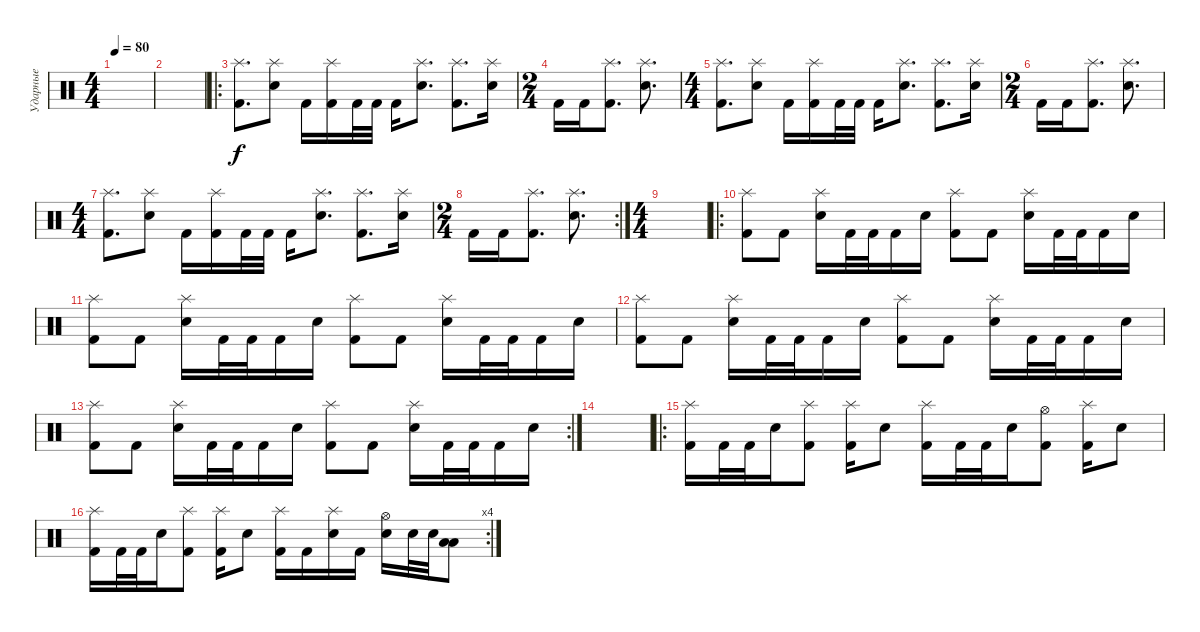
\track ("Ударные" "Ударные") {instrument percussion}
\staff {score}
\articulation defaults
\ts (4 4)
\tempo 80
\clef neutral
\ks c
|
|
\ro
("Splash (hit)" "Kick (hit) 2").8{d} ("Splash (hit)" "Electric Snare (hit)").8 "Kick (hit) 2".16 ("Splash (hit)" "Kick (hit) 2").16 "Kick (hit) 2".32 "Kick (hit) 2".32 "Kick (hit) 2".16 ("Splash (hit)" "Electric Snare (hit)").8{d} ("Splash (hit)" "Kick (hit) 2").8{d} ("Splash (hit)" "Electric Snare (hit)").16 |
\ts (2 4)
"Kick (hit) 2".16 "Kick (hit) 2".16 ("Splash (hit)" "Kick (hit) 2").8{d} ("Splash (hit)" "Electric Snare (hit)").8{d} |
\ts (4 4)
("Splash (hit)" "Kick (hit) 2").8{d} ("Splash (hit)" "Electric Snare (hit)").8 "Kick (hit) 2".16 ("Splash (hit)" "Kick (hit) 2").16 "Kick (hit) 2".32 "Kick (hit) 2".32 "Kick (hit) 2".16 ("Splash (hit)" "Electric Snare (hit)").8{d} ("Splash (hit)" "Kick (hit) 2").8{d} ("Splash (hit)" "Electric Snare (hit)").16 |
\ts (2 4)
"Kick (hit) 2".16 "Kick (hit) 2".16 ("Splash (hit)" "Kick (hit) 2").8{d} ("Splash (hit)" "Electric Snare (hit)").8{d} |
\ts (4 4)
("Splash (hit)" "Kick (hit) 2").8{d} ("Splash (hit)" "Electric Snare (hit)").8 "Kick (hit) 2".16 ("Splash (hit)" "Kick (hit) 2").16 "Kick (hit) 2".32 "Kick (hit) 2".32 "Kick (hit) 2".16 ("Splash (hit)" "Electric Snare (hit)").8{d} ("Splash (hit)" "Kick (hit) 2").8{d} ("Splash (hit)" "Electric Snare (hit)").16 |
\rc 2
\ts (2 4)
"Kick (hit) 2".16 "Kick (hit) 2".16 ("Splash (hit)" "Kick (hit) 2").8{d} ("Splash (hit)" "Electric Snare (hit)").8{d} |
\ts (4 4)
|
\ro
("Splash (hit)" "Kick (hit) 2").8 "Kick (hit) 2".8 ("Splash (hit)" "Electric Snare (hit)").16 "Kick (hit) 2".32 "Kick (hit) 2".32 "Kick (hit) 2".16 "Electric Snare (hit)".16 ("Splash (hit)" "Kick (hit) 2").8 "Kick (hit) 2".8 ("Splash (hit)" "Electric Snare (hit)").16 "Kick (hit) 2".32 "Kick (hit) 2".32 "Kick (hit) 2".16 "Electric Snare (hit)".16 |
("Splash (hit)" "Kick (hit) 2").8 "Kick (hit) 2".8 ("Splash (hit)" "Electric Snare (hit)").16 "Kick (hit) 2".32 "Kick (hit) 2".32 "Kick (hit) 2".16 "Electric Snare (hit)".16 ("Splash (hit)" "Kick (hit) 2").8 "Kick (hit) 2".8 ("Splash (hit)" "Electric Snare (hit)").16 "Kick (hit) 2".32 "Kick (hit) 2".32 "Kick (hit) 2".16 "Electric Snare (hit)".16 |
("Splash (hit)" "Kick (hit) 2").8 "Kick (hit) 2".8 ("Splash (hit)" "Electric Snare (hit)").16 "Kick (hit) 2".32 "Kick (hit) 2".32 "Kick (hit) 2".16 "Electric Snare (hit)".16 ("Splash (hit)" "Kick (hit) 2").8 "Kick (hit) 2".8 ("Splash (hit)" "Electric Snare (hit)").16 "Kick (hit) 2".32 "Kick (hit) 2".32 "Kick (hit) 2".16 "Electric Snare (hit)".16 |
\rc 2
("Splash (hit)" "Kick (hit) 2").8 "Kick (hit) 2".8 ("Splash (hit)" "Electric Snare (hit)").16 "Kick (hit) 2".32 "Kick (hit) 2".32 "Kick (hit) 2".16 "Electric Snare (hit)".16 ("Splash (hit)" "Kick (hit) 2").8 "Kick (hit) 2".8 ("Splash (hit)" "Electric Snare (hit)").16 "Kick (hit) 2".32 "Kick (hit) 2".32 "Kick (hit) 2".16 "Electric Snare (hit)".16 |
|
\ro
("Splash (hit)" "Kick (hit) 2").16 "Kick (hit) 2".32 "Kick (hit) 2".32 "Electric Snare (hit)".16 ("Splash (hit)" "Kick (hit) 2").8 ("Splash (hit)" "Kick (hit) 2").16 "Electric Snare (hit)".8 ("Splash (hit)" "Kick (hit) 2").16 "Kick (hit) 2".32 "Kick (hit) 2".32 "Electric Snare (hit)".16 ("Hi-Hat (open)" "Kick (hit) 2").8 ("Splash (hit)" "Kick (hit) 2").16 "Electric Snare (hit)".8 |
\rc 4
("Splash (hit)" "Kick (hit) 2").16 "Kick (hit) 2".32 "Kick (hit) 2".32 "Electric Snare (hit)".16 ("Splash (hit)" "Kick (hit) 2").8 ("Splash (hit)" "Kick (hit) 2").16 "Electric Snare (hit)".8 ("Splash (hit)" "Kick (hit) 2").16 "Kick (hit) 2".16 ("Splash (hit)" "Electric Snare (hit)").16 "Kick (hit) 2".16 ("Hi-Hat (open)" "Electric Snare (hit)").16 "Electric Snare (hit)".32 "Electric Snare (hit)".32 ("Low Floor Tom (hit)" "Low Floor Tom (hit)").8
